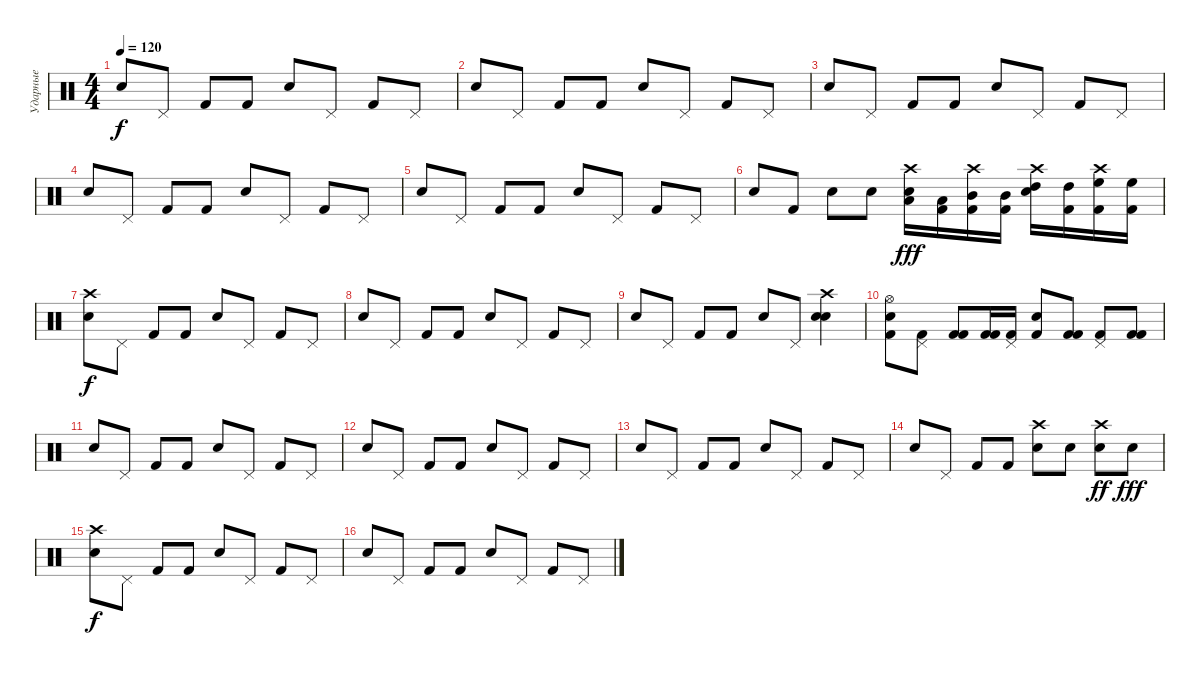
\track ("Ударные" "Ударные") {instrument percussion}
\staff {score}
\articulation defaults
\ts (4 4)
\tempo 120
\clef neutral
\ks c "Electric Snare (hit)".8{dy f} "Pedal Hi-Hat (hit)".8 "Kick (hit) 2".8 "Kick (hit) 2".8 "Electric Snare (hit)".8 "Pedal Hi-Hat (hit)".8 "Kick (hit) 2".8 "Pedal Hi-Hat (hit)".8
|
"Electric Snare (hit)".8 "Pedal Hi-Hat (hit)".8 "Kick (hit) 2".8 "Kick (hit) 2".8 "Electric Snare (hit)".8 "Pedal Hi-Hat (hit)".8 "Kick (hit) 2".8 "Pedal Hi-Hat (hit)".8 |
"Electric Snare (hit)".8 "Pedal Hi-Hat (hit)".8 "Kick (hit) 2".8 "Kick (hit) 2".8 "Electric Snare (hit)".8 "Pedal Hi-Hat (hit)".8 "Kick (hit) 2".8 "Pedal Hi-Hat (hit)".8 |
"Electric Snare (hit)".8 "Pedal Hi-Hat (hit)".8 "Kick (hit) 2".8 "Kick (hit) 2".8 "Electric Snare (hit)".8 "Pedal Hi-Hat (hit)".8 "Kick (hit) 2".8 "Pedal Hi-Hat (hit)".8 |
"Electric Snare (hit)".8 "Pedal Hi-Hat (hit)".8 "Kick (hit) 2".8 "Kick (hit) 2".8 "Electric Snare (hit)".8 "Pedal Hi-Hat (hit)".8 "Kick (hit) 2".8 "Pedal Hi-Hat (hit)".8 |
"Snare (hit) 2".8 "Kick (hit) 2".8 "Snare (hit) 2".8 "Snare (hit) 2".8 ("Snare (hit) 2" "Low Tom (hit)" "Crash high (hit)").16{dy fff} ("Kick (hit) 2" "Low Tom (hit)").16 ("Kick (hit) 2" "Mid Tom (hit)" "Crash high (hit)").16 ("Kick (hit) 2" "Mid Tom (hit)").16 ("Snare (hit) 2" "High Tom (hit)" "Crash high (hit)").16 ("Kick (hit) 2" "High Tom (hit)").16 ("Kick (hit) 2" "High Floor Tom (hit)" "Crash high (hit)").16 ("Kick (hit) 2" "High Floor Tom (hit)").16 |
("Electric Snare (hit)" "Crash high (hit)").8{dy f} "Pedal Hi-Hat (hit)".8 "Kick (hit) 2".8 "Kick (hit) 2".8 "Electric Snare (hit)".8 "Pedal Hi-Hat (hit)".8 "Kick (hit) 2".8 "Pedal Hi-Hat (hit)".8 |
"Electric Snare (hit)".8 "Pedal Hi-Hat (hit)".8 "Kick (hit) 2".8 "Kick (hit) 2".8 "Electric Snare (hit)".8 "Pedal Hi-Hat (hit)".8 "Kick (hit) 2".8 "Pedal Hi-Hat (hit)".8 |
"Electric Snare (hit)".8 "Pedal Hi-Hat (hit)".8 "Kick (hit) 2".8 "Kick (hit) 2".8 "Electric Snare (hit)".8 "Pedal Hi-Hat (hit)".8 ("Electric Snare (hit)" "Snare (hit) 2" "Crash high (hit)").4 |
("Electric Snare (hit)" "Hi-Hat (open)" "Kick (hit) 2").8 ("Pedal Hi-Hat (hit)" "Kick (hit) 2").8 ("Kick (hit) 2" "Kick (hit) 2").8 ("Kick (hit) 2" "Kick (hit) 2").16 ("Pedal Hi-Hat (hit)" "Kick (hit) 2").16 ("Electric Snare (hit)" "Kick (hit) 2").8 ("Kick (hit) 2" "Kick (hit) 2").8 ("Pedal Hi-Hat (hit)" "Kick (hit) 2").8 ("Kick (hit) 2" "Kick (hit) 2").8 |
"Electric Snare (hit)".8 "Pedal Hi-Hat (hit)".8 "Kick (hit) 2".8 "Kick (hit) 2".8 "Electric Snare (hit)".8 "Pedal Hi-Hat (hit)".8 "Kick (hit) 2".8 "Pedal Hi-Hat (hit)".8 |
"Electric Snare (hit)".8 "Pedal Hi-Hat (hit)".8 "Kick (hit) 2".8 "Kick (hit) 2".8 "Electric Snare (hit)".8 "Pedal Hi-Hat (hit)".8 "Kick (hit) 2".8 "Pedal Hi-Hat (hit)".8 |
"Electric Snare (hit)".8 "Pedal Hi-Hat (hit)".8 "Kick (hit) 2".8 "Kick (hit) 2".8 "Electric Snare (hit)".8 "Pedal Hi-Hat (hit)".8 "Kick (hit) 2".8 "Pedal Hi-Hat (hit)".8 |
"Electric Snare (hit)".8 "Pedal Hi-Hat (hit)".8 "Kick (hit) 2".8 "Kick (hit) 2".8 ("Electric Snare (hit)" "Crash high (hit)").8 "Electric Snare (hit)".8 ("Electric Snare (hit)" "Crash high (hit)").8{dy ff} "Electric Snare (hit)".8{dy fff} |
("Electric Snare (hit)" "Crash high (hit)").8{dy f} "Pedal Hi-Hat (hit)".8 "Kick (hit) 2".8 "Kick (hit) 2".8 "Electric Snare (hit)".8 "Pedal Hi-Hat (hit)".8 "Kick (hit) 2".8 "Pedal Hi-Hat (hit)".8 |
"Electric Snare (hit)".8 "Pedal Hi-Hat (hit)".8 "Kick (hit) 2".8 "Kick (hit) 2".8 "Electric Snare (hit)".8 "Pedal Hi-Hat (hit)".8 "Kick (hit) 2".8 "Pedal Hi-Hat (hit)".8
